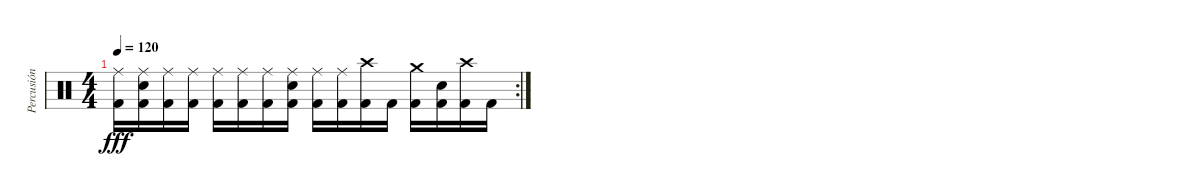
\track ("Percusión" "Percusión") {instrument percussion}
\staff {score}
\articulation defaults
\rc 2
\ts (4 4)
\tempo 120
\clef neutral
\ks c
("Ride (middle)" "Kick (hit) 2").16{dy fff} ("Ride (middle)" "Snare (hit) 2" "Kick (hit) 2").16 ("Ride (middle)" "Kick (hit) 2").16 ("Ride (middle)" "Kick (hit) 2").16 ("Ride (middle)" "Kick (hit) 2").16 ("Ride (middle)" "Kick (hit) 2").16 ("Ride (middle)" "Kick (hit) 2").16 ("Ride (middle)" "Snare (hit) 2" "Kick (hit) 2").16 ("Ride (middle)" "Kick (hit) 2").16 ("Ride (middle)" "Kick (hit) 2").16 ("Crash high (hit)" "Kick (hit) 2").16 "Kick (hit) 2".16 ("Crash medium (hit)" "Kick (hit) 2").16 ("Snare (hit) 2" "Kick (hit) 2").16 ("Crash high (hit)" "Kick (hit) 2").16 "Kick (hit) 2".16
